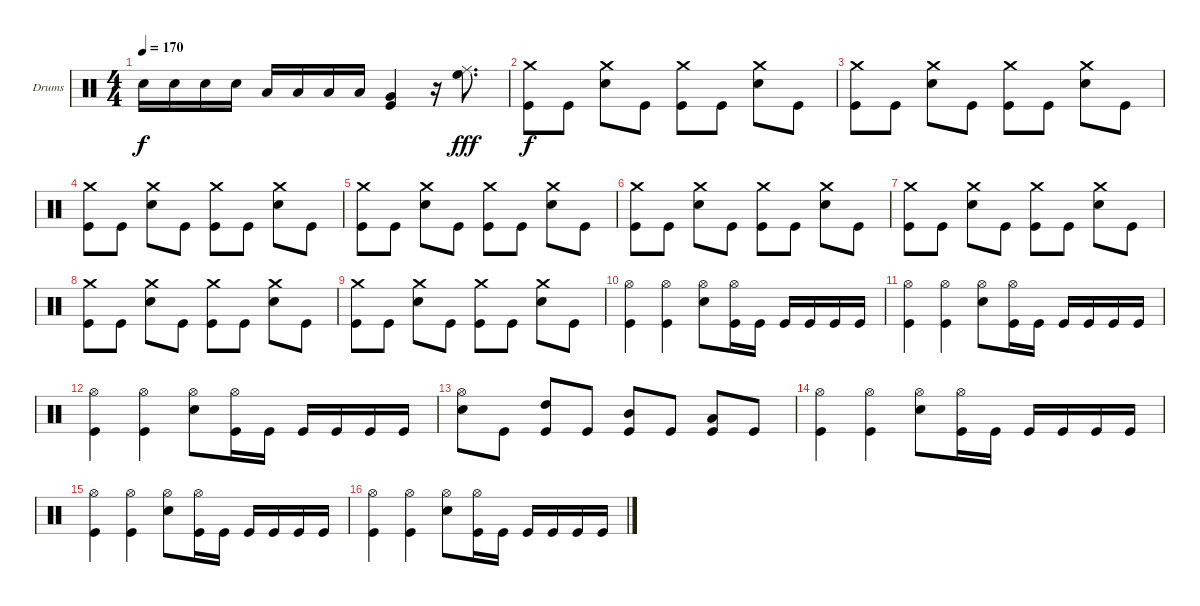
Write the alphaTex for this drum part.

\defaultSystemsLayout 4
\bracketExtendMode groupsimilarinstruments
\firstSystemTrackNameOrientation horizontal
\otherSystemsTrackNameOrientation horizontal
\track ("Drumkit" "Drums") {instrument percussion}
\staff {score}
\articulation defaults
\ts (4 4)
\tempo 170
\clef neutral
\scale
0.333333
\ks c "Snare (hit) 2".16{dy f} "Snare (hit) 2".16 "Snare (hit) 2".16 "Snare (hit) 2".16 "Low Tom (hit)".16 "Low Tom (hit)".16 "Low Tom (hit)".16 "Low Tom (hit)".16
("Very Low Tom (hit)" "Kick (hit)").4 r.16 ("High Floor Tom (hit)" "Ride (middle)").8{d dy fff} |
\scale
0.333333 ("Crash medium (hit)" "Kick (hit)").8{dy f} "Kick (hit)".8 ("Crash medium (hit)" "Snare (hit) 2").8 "Kick (hit)".8 ("Crash medium (hit)" "Kick (hit)").8 "Kick (hit)".8 ("Crash medium (hit)" "Snare (hit) 2").8 "Kick (hit)".8 |
\scale
0.333333 ("Crash medium (hit)" "Kick (hit)").8 "Kick (hit)".8 ("Crash medium (hit)" "Snare (hit) 2").8 "Kick (hit)".8 ("Crash medium (hit)" "Kick (hit)").8 "Kick (hit)".8 ("Crash medium (hit)" "Snare (hit) 2").8 "Kick (hit)".8 |
\scale
0.333333 ("Crash medium (hit)" "Kick (hit)").8 "Kick (hit)".8 ("Crash medium (hit)" "Snare (hit) 2").8 "Kick (hit)".8 ("Crash medium (hit)" "Kick (hit)").8 "Kick (hit)".8 ("Crash medium (hit)" "Snare (hit) 2").8 "Kick (hit)".8 |
\scale
0.333333 ("Crash medium (hit)" "Kick (hit)").8 "Kick (hit)".8 ("Crash medium (hit)" "Snare (hit) 2").8 "Kick (hit)".8 ("Crash medium (hit)" "Kick (hit)").8 "Kick (hit)".8 ("Crash medium (hit)" "Snare (hit) 2").8 "Kick (hit)".8 |
\scale
0.333333 ("Crash medium (hit)" "Kick (hit)").8 "Kick (hit)".8 ("Crash medium (hit)" "Snare (hit) 2").8 "Kick (hit)".8 ("Crash medium (hit)" "Kick (hit)").8 "Kick (hit)".8 ("Crash medium (hit)" "Snare (hit) 2").8 "Kick (hit)".8 |
\scale
0.333333 ("Crash medium (hit)" "Kick (hit)").8 "Kick (hit)".8 ("Crash medium (hit)" "Snare (hit) 2").8 "Kick (hit)".8 ("Crash medium (hit)" "Kick (hit)").8 "Kick (hit)".8 ("Crash medium (hit)" "Snare (hit) 2").8 "Kick (hit)".8 |
\scale
0.333333 ("Crash medium (hit)" "Kick (hit)").8 "Kick (hit)".8 ("Crash medium (hit)" "Snare (hit) 2").8 "Kick (hit)".8 ("Crash medium (hit)" "Kick (hit)").8 "Kick (hit)".8 ("Crash medium (hit)" "Snare (hit) 2").8 "Kick (hit)".8 |
\scale
0.333333 ("Crash medium (hit)" "Kick (hit)").8 "Kick (hit)".8 ("Crash medium (hit)" "Snare (hit) 2").8 "Kick (hit)".8 ("Crash medium (hit)" "Kick (hit)").8 "Kick (hit)".8 ("Crash medium (hit)" "Snare (hit) 2").8 "Kick (hit)".8 |
\scale
0.333333 ("Hi-Hat (open)" "Kick (hit)").4 ("Hi-Hat (open)" "Kick (hit)").4 ("Hi-Hat (open)" "Snare (hit) 2").8 ("Hi-Hat (open)" "Kick (hit)").16 "Kick (hit)".16 "Kick (hit)".16 "Kick (hit)".16 "Kick (hit)".16 "Kick (hit)".16 |
\scale
0.333333 ("Hi-Hat (open)" "Kick (hit)").4 ("Hi-Hat (open)" "Kick (hit)").4 ("Hi-Hat (open)" "Snare (hit) 2").8 ("Hi-Hat (open)" "Kick (hit)").16 "Kick (hit)".16 "Kick (hit)".16 "Kick (hit)".16 "Kick (hit)".16 "Kick (hit)".16 |
\scale
0.333333 ("Hi-Hat (open)" "Kick (hit)").4 ("Hi-Hat (open)" "Kick (hit)").4 ("Hi-Hat (open)" "Snare (hit) 2").8 ("Hi-Hat (open)" "Kick (hit)").16 "Kick (hit)".16 "Kick (hit)".16 "Kick (hit)".16 "Kick (hit)".16 "Kick (hit)".16 |
\scale
0.333333 ("Hi-Hat (open)" "Snare (hit) 2").8 "Kick (hit)".8 ("High Tom (hit)" "Kick (hit)").8 "Kick (hit)".8 ("Mid Tom (hit)" "Kick (hit)").8 "Kick (hit)".8 ("Low Tom (hit)" "Kick (hit)").8 "Kick (hit)".8 |
\scale
0.333333 ("Hi-Hat (open)" "Kick (hit)").4 ("Hi-Hat (open)" "Kick (hit)").4 ("Hi-Hat (open)" "Snare (hit) 2").8 ("Hi-Hat (open)" "Kick (hit)").16 "Kick (hit)".16 "Kick (hit)".16 "Kick (hit)".16 "Kick (hit)".16 "Kick (hit)".16 |
\scale
0.333333 ("Hi-Hat (open)" "Kick (hit)").4 ("Hi-Hat (open)" "Kick (hit)").4 ("Hi-Hat (open)" "Snare (hit) 2").8 ("Hi-Hat (open)" "Kick (hit)").16 "Kick (hit)".16 "Kick (hit)".16 "Kick (hit)".16 "Kick (hit)".16 "Kick (hit)".16 |
\scale
0.333333 ("Hi-Hat (open)" "Kick (hit)").4 ("Hi-Hat (open)" "Kick (hit)").4 ("Hi-Hat (open)" "Snare (hit) 2").8 ("Hi-Hat (open)" "Kick (hit)").16 "Kick (hit)".16 "Kick (hit)".16 "Kick (hit)".16 "Kick (hit)".16 "Kick (hit)".16
